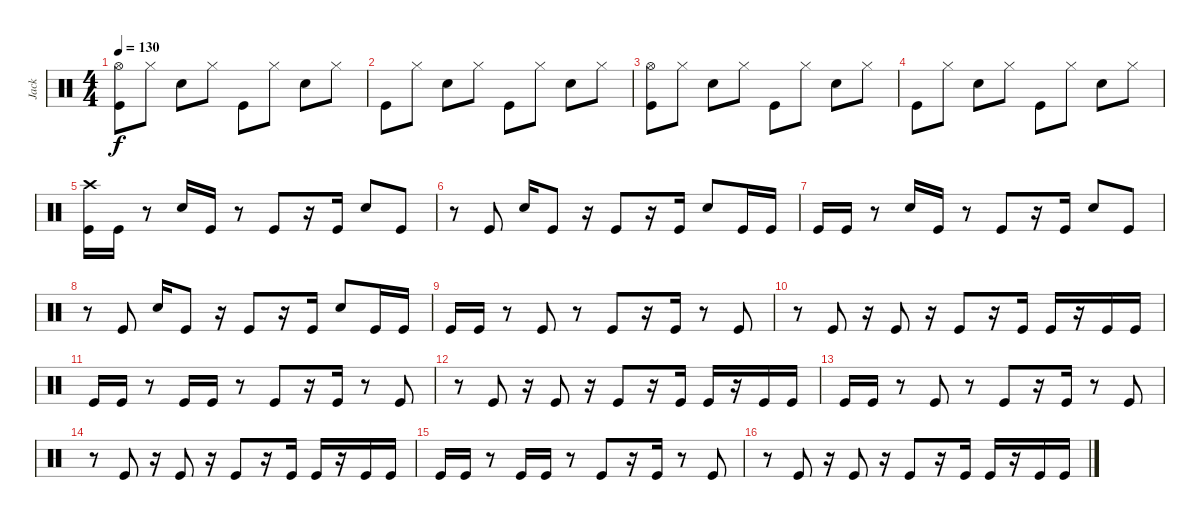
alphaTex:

\track ("Jack" "Jack") {instrument percussion}
\staff {score}
\articulation defaults
\ts (4 4)
\tempo 130
\clef neutral
\ks c
("Hi-Hat (open)" "Kick (hit)").8{dy f} "Hi-Hat (closed)".8 "Electric Snare (hit)".8 "Hi-Hat (closed)".8 "Kick (hit)".8 "Hi-Hat (closed)".8 "Electric Snare (hit)".8 "Hi-Hat (closed)".8 |
"Kick (hit)".8 "Hi-Hat (closed)".8 "Electric Snare (hit)".8 "Hi-Hat (closed)".8 "Kick (hit)".8 "Hi-Hat (closed)".8 "Electric Snare (hit)".8 "Hi-Hat (closed)".8 |
("Hi-Hat (open)" "Kick (hit)").8 "Hi-Hat (closed)".8 "Electric Snare (hit)".8 "Hi-Hat (closed)".8 "Kick (hit)".8 "Hi-Hat (closed)".8 "Electric Snare (hit)".8 "Hi-Hat (closed)".8 |
"Kick (hit)".8 "Hi-Hat (closed)".8 "Electric Snare (hit)".8 "Hi-Hat (closed)".8 "Kick (hit)".8 "Hi-Hat (closed)".8 "Electric Snare (hit)".8 "Hi-Hat (closed)".8 |
("Crash high (hit)" "Kick (hit)").16 "Kick (hit)".16 r.8 "Electric Snare (hit)".16 "Kick (hit)".16 r.8 "Kick (hit)".8 r.16 "Kick (hit)".16 "Electric Snare (hit)".8 "Kick (hit)".8 |
r.8 "Kick (hit)".8 "Electric Snare (hit)".16 "Kick (hit)".8 r.16 "Kick (hit)".8 r.16 "Kick (hit)".16 "Electric Snare (hit)".8 "Kick (hit)".16 "Kick (hit)".16 |
"Kick (hit)".16 "Kick (hit)".16 r.8 "Electric Snare (hit)".16 "Kick (hit)".16 r.8 "Kick (hit)".8 r.16 "Kick (hit)".16 "Electric Snare (hit)".8 "Kick (hit)".8 |
r.8 "Kick (hit)".8 "Electric Snare (hit)".16 "Kick (hit)".8 r.16 "Kick (hit)".8 r.16 "Kick (hit)".16 "Electric Snare (hit)".8 "Kick (hit)".16 "Kick (hit)".16 |
"Kick (hit)".16 "Kick (hit)".16 r.8 "Kick (hit)".8 r.8 "Kick (hit)".8 r.16 "Kick (hit)".16 r.8 "Kick (hit)".8 |
r.8 "Kick (hit)".8 r.16 "Kick (hit)".8 r.16 "Kick (hit)".8 r.16 "Kick (hit)".16 "Kick (hit)".16 r.16 "Kick (hit)".16 "Kick (hit)".16 |
"Kick (hit)".16 "Kick (hit)".16 r.8 "Kick (hit)".16 "Kick (hit)".16 r.8 "Kick (hit)".8 r.16 "Kick (hit)".16 r.8 "Kick (hit)".8 |
r.8 "Kick (hit)".8 r.16 "Kick (hit)".8 r.16 "Kick (hit)".8 r.16 "Kick (hit)".16 "Kick (hit)".16 r.16 "Kick (hit)".16 "Kick (hit)".16 |
"Kick (hit)".16 "Kick (hit)".16 r.8 "Kick (hit)".8 r.8 "Kick (hit)".8 r.16 "Kick (hit)".16 r.8 "Kick (hit)".8 |
r.8 "Kick (hit)".8 r.16 "Kick (hit)".8 r.16 "Kick (hit)".8 r.16 "Kick (hit)".16 "Kick (hit)".16 r.16 "Kick (hit)".16 "Kick (hit)".16 |
"Kick (hit)".16 "Kick (hit)".16 r.8 "Kick (hit)".16 "Kick (hit)".16 r.8 "Kick (hit)".8 r.16 "Kick (hit)".16 r.8 "Kick (hit)".8 |
r.8 "Kick (hit)".8 r.16 "Kick (hit)".8 r.16 "Kick (hit)".8 r.16 "Kick (hit)".16 "Kick (hit)".16 r.16 "Kick (hit)".16 "Kick (hit)".16
